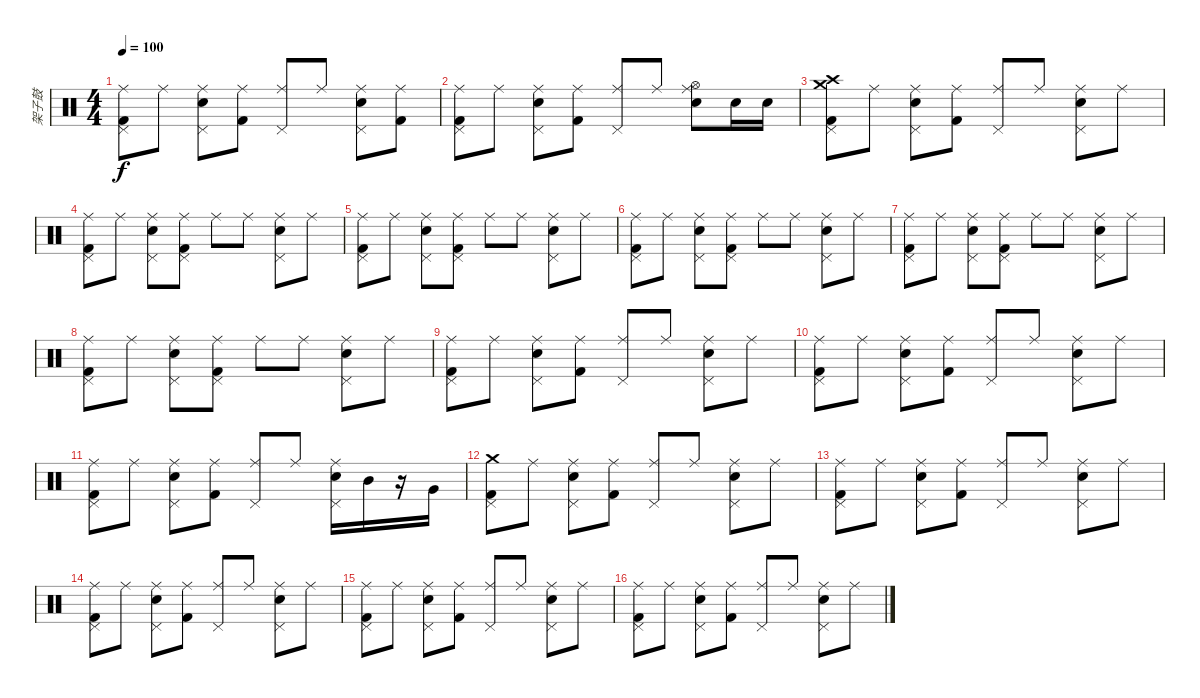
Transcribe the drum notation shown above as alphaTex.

\track ("架子鼓" "架子鼓") {instrument percussion}
\staff {score}
\articulation defaults
\ts (4 4)
\tempo 100
\clef neutral
\ks c
("Ride (middle)" "Pedal Hi-Hat (hit)" "Kick (hit) 2").8{dy f} "Ride (middle)".8 ("Ride (middle)" "Pedal Hi-Hat (hit)" "Snare (hit) 2").8 ("Ride (middle)" "Kick (hit) 2").8 ("Ride (middle)" "Pedal Hi-Hat (hit)").8 "Ride (middle)".8 ("Ride (middle)" "Pedal Hi-Hat (hit)" "Snare (hit) 2").8 ("Ride (middle)" "Kick (hit) 2").8 |
("Ride (middle)" "Pedal Hi-Hat (hit)" "Kick (hit) 2").8 "Ride (middle)".8 ("Ride (middle)" "Pedal Hi-Hat (hit)" "Snare (hit) 2").8 ("Ride (middle)" "Kick (hit) 2").8 ("Ride (middle)" "Pedal Hi-Hat (hit)").8 "Ride (middle)".8 ("Ride (middle)" "Hi-Hat (open)" "Snare (hit) 2").8 "Snare (hit) 2".16 "Snare (hit) 2".16 |
("Crash medium (hit)" "Pedal Hi-Hat (hit)" "Crash high (hit)" "Kick (hit) 2").8 "Ride (middle)".8 ("Ride (middle)" "Pedal Hi-Hat (hit)" "Snare (hit) 2").8 ("Ride (middle)" "Kick (hit) 2").8 ("Ride (middle)" "Pedal Hi-Hat (hit)").8 "Ride (middle)".8 ("Ride (middle)" "Pedal Hi-Hat (hit)" "Snare (hit) 2").8 "Ride (middle)".8 |
("Ride (middle)" "Pedal Hi-Hat (hit)" "Kick (hit) 2").8 "Ride (middle)".8 ("Ride (middle)" "Pedal Hi-Hat (hit)" "Snare (hit) 2").8 ("Ride (middle)" "Pedal Hi-Hat (hit)" "Kick (hit) 2").8 "Ride (middle)".8 "Ride (middle)".8 ("Ride (middle)" "Pedal Hi-Hat (hit)" "Snare (hit) 2").8 "Ride (middle)".8 |
("Ride (middle)" "Pedal Hi-Hat (hit)" "Kick (hit) 2").8 "Ride (middle)".8 ("Ride (middle)" "Pedal Hi-Hat (hit)" "Snare (hit) 2").8 ("Ride (middle)" "Pedal Hi-Hat (hit)" "Kick (hit) 2").8 "Ride (middle)".8 "Ride (middle)".8 ("Ride (middle)" "Pedal Hi-Hat (hit)" "Snare (hit) 2").8 "Ride (middle)".8 |
("Ride (middle)" "Pedal Hi-Hat (hit)" "Kick (hit) 2").8 "Ride (middle)".8 ("Ride (middle)" "Pedal Hi-Hat (hit)" "Snare (hit) 2").8 ("Ride (middle)" "Pedal Hi-Hat (hit)" "Kick (hit) 2").8 "Ride (middle)".8 "Ride (middle)".8 ("Ride (middle)" "Pedal Hi-Hat (hit)" "Snare (hit) 2").8 "Ride (middle)".8 |
("Ride (middle)" "Pedal Hi-Hat (hit)" "Kick (hit) 2").8 "Ride (middle)".8 ("Ride (middle)" "Pedal Hi-Hat (hit)" "Snare (hit) 2").8 ("Ride (middle)" "Pedal Hi-Hat (hit)" "Kick (hit) 2").8 "Ride (middle)".8 "Ride (middle)".8 ("Ride (middle)" "Pedal Hi-Hat (hit)" "Snare (hit) 2").8 "Ride (middle)".8 |
("Ride (middle)" "Pedal Hi-Hat (hit)" "Kick (hit) 2").8 "Ride (middle)".8 ("Ride (middle)" "Pedal Hi-Hat (hit)" "Snare (hit) 2").8 ("Ride (middle)" "Pedal Hi-Hat (hit)" "Kick (hit) 2").8 "Ride (middle)".8 "Ride (middle)".8 ("Ride (middle)" "Pedal Hi-Hat (hit)" "Snare (hit) 2").8 "Ride (middle)".8 |
("Ride (middle)" "Pedal Hi-Hat (hit)" "Kick (hit) 2").8 "Ride (middle)".8 ("Ride (middle)" "Pedal Hi-Hat (hit)" "Snare (hit) 2").8 ("Ride (middle)" "Kick (hit) 2").8 ("Ride (middle)" "Pedal Hi-Hat (hit)").8 "Ride (middle)".8 ("Ride (middle)" "Pedal Hi-Hat (hit)" "Snare (hit) 2").8 "Ride (middle)".8 |
("Ride (middle)" "Pedal Hi-Hat (hit)" "Kick (hit) 2").8 "Ride (middle)".8 ("Ride (middle)" "Pedal Hi-Hat (hit)" "Snare (hit) 2").8 ("Ride (middle)" "Kick (hit) 2").8 ("Ride (middle)" "Pedal Hi-Hat (hit)").8 "Ride (middle)".8 ("Ride (middle)" "Pedal Hi-Hat (hit)" "Snare (hit) 2").8 "Ride (middle)".8 |
("Ride (middle)" "Pedal Hi-Hat (hit)" "Kick (hit) 2").8 "Ride (middle)".8 ("Ride (middle)" "Pedal Hi-Hat (hit)" "Snare (hit) 2").8 ("Ride (middle)" "Kick (hit) 2").8 ("Ride (middle)" "Pedal Hi-Hat (hit)").8 "Ride (middle)".8 ("Ride (middle)" "Pedal Hi-Hat (hit)" "Snare (hit) 2").16 "Mid Tom (hit)".16 r.16 "Very Low Tom (hit)".16 |
("Crash medium (hit)" "Pedal Hi-Hat (hit)" "Kick (hit) 2").8 "Ride (middle)".8 ("Ride (middle)" "Pedal Hi-Hat (hit)" "Snare (hit) 2").8 ("Ride (middle)" "Kick (hit) 2").8 ("Ride (middle)" "Pedal Hi-Hat (hit)").8 "Ride (middle)".8 ("Ride (middle)" "Pedal Hi-Hat (hit)" "Snare (hit) 2").8 "Ride (middle)".8 |
("Ride (middle)" "Pedal Hi-Hat (hit)" "Kick (hit) 2").8 "Ride (middle)".8 ("Ride (middle)" "Pedal Hi-Hat (hit)" "Snare (hit) 2").8 ("Ride (middle)" "Kick (hit) 2").8 ("Ride (middle)" "Pedal Hi-Hat (hit)").8 "Ride (middle)".8 ("Ride (middle)" "Pedal Hi-Hat (hit)" "Snare (hit) 2").8 "Ride (middle)".8 |
("Ride (middle)" "Pedal Hi-Hat (hit)" "Kick (hit) 2").8 "Ride (middle)".8 ("Ride (middle)" "Pedal Hi-Hat (hit)" "Snare (hit) 2").8 ("Ride (middle)" "Kick (hit) 2").8 ("Ride (middle)" "Pedal Hi-Hat (hit)").8 "Ride (middle)".8 ("Ride (middle)" "Pedal Hi-Hat (hit)" "Snare (hit) 2").8 "Ride (middle)".8 |
("Ride (middle)" "Pedal Hi-Hat (hit)" "Kick (hit) 2").8 "Ride (middle)".8 ("Ride (middle)" "Pedal Hi-Hat (hit)" "Snare (hit) 2").8 ("Ride (middle)" "Kick (hit) 2").8 ("Ride (middle)" "Pedal Hi-Hat (hit)").8 "Ride (middle)".8 ("Ride (middle)" "Pedal Hi-Hat (hit)" "Snare (hit) 2").8 "Ride (middle)".8 |
("Ride (middle)" "Pedal Hi-Hat (hit)" "Kick (hit) 2").8 "Ride (middle)".8 ("Ride (middle)" "Pedal Hi-Hat (hit)" "Snare (hit) 2").8 ("Ride (middle)" "Kick (hit) 2").8 ("Ride (middle)" "Pedal Hi-Hat (hit)").8 "Ride (middle)".8 ("Ride (middle)" "Pedal Hi-Hat (hit)" "Snare (hit) 2").8 "Ride (middle)".8
